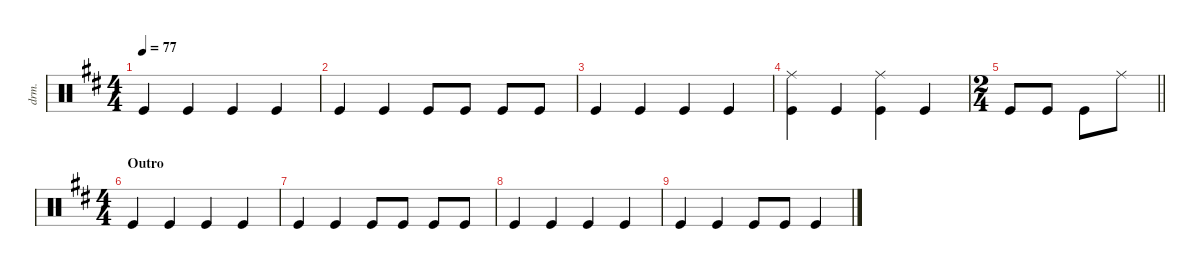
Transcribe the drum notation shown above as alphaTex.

\defaultSystemsLayout 4
\hideDynamics
\bracketExtendMode nobrackets
\otherSystemsTrackNameOrientation horizontal
\track ("Drums" "drm.") {defaultSystemsLayout 8 instrument percussion}
\staff {score}
\articulation defaults
\ts (4 4)
\tempo 77
\clef neutral
\ks bminor "Kick (hit)"{acc forcenatural}.4{dy mf} "Kick (hit)"{acc forcenatural}.4 "Kick (hit)"{acc forcenatural}.4 "Kick (hit)"{acc forcenatural}.4
|
"Kick (hit)"{acc forcenatural}.4 "Kick (hit)"{acc forcenatural}.4 "Kick (hit)"{acc forcenatural}.8 "Kick (hit)"{acc forcenatural}.8 "Kick (hit)"{acc forcenatural}.8 "Kick (hit)"{acc forcenatural}.8 |
"Kick (hit)"{acc forcenatural}.4 "Kick (hit)"{acc forcenatural}.4 "Kick (hit)"{acc forcenatural}.4 "Kick (hit)"{acc forcenatural}.4 |
("Kick (hit)"{acc forcenatural} "Ride (middle)"{acc forcenatural}).4 "Kick (hit)"{acc forcenatural}.4 ("Kick (hit)"{acc forcenatural} "Ride (middle)"{acc forcenatural}).4 "Kick (hit)"{acc forcenatural}.4 |
\ts (2 4)
\beaming (8 2 2)
\barLineRight lightlight "Kick (hit)"{acc forcenatural}.8 "Kick (hit)"{acc forcenatural}.8 "Kick (hit)"{acc forcenatural}.8 "Ride (middle)"{acc forcenatural}.8
|
\ts (4 4)
\section ("" "Outro")
"Kick (hit)"{acc forcenatural}.4 "Kick (hit)"{acc forcenatural}.4 "Kick (hit)"{acc forcenatural}.4 "Kick (hit)"{acc forcenatural}.4 |
"Kick (hit)"{acc forcenatural}.4 "Kick (hit)"{acc forcenatural}.4 "Kick (hit)"{acc forcenatural}.8 "Kick (hit)"{acc forcenatural}.8 "Kick (hit)"{acc forcenatural}.8 "Kick (hit)"{acc forcenatural}.8 |
"Kick (hit)"{acc forcenatural}.4 "Kick (hit)"{acc forcenatural}.4 "Kick (hit)"{acc forcenatural}.4 "Kick (hit)"{acc forcenatural}.4 |
"Kick (hit)"{acc forcenatural}.4 "Kick (hit)"{acc forcenatural}.4 "Kick (hit)"{acc forcenatural}.8 "Kick (hit)"{acc forcenatural}.8 "Kick (hit)"{acc forcenatural}.4
